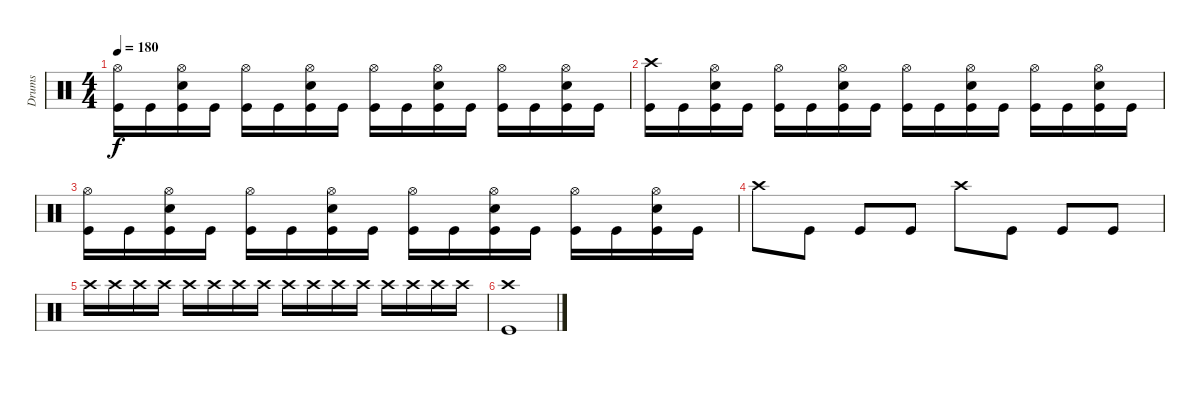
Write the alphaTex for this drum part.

\track ("Drums" "Drums") {instrument percussion}
\staff {score}
\articulation defaults
\ts (4 4)
\tempo 180
\clef neutral
\ks c
("Hi-Hat (open)" "Kick (hit)").16{dy f} "Kick (hit)".16 ("Hi-Hat (open)" "Electric Snare (hit)" "Kick (hit)").16 "Kick (hit)".16 ("Hi-Hat (open)" "Kick (hit)").16 "Kick (hit)".16 ("Hi-Hat (open)" "Electric Snare (hit)" "Kick (hit)").16 "Kick (hit)".16 ("Hi-Hat (open)" "Kick (hit)").16 "Kick (hit)".16 ("Hi-Hat (open)" "Electric Snare (hit)" "Kick (hit)").16 "Kick (hit)".16 ("Hi-Hat (open)" "Kick (hit)").16 "Kick (hit)".16 ("Hi-Hat (open)" "Electric Snare (hit)" "Kick (hit)").16 "Kick (hit)".16 |
("Crash high (hit)" "Kick (hit)").16 "Kick (hit)".16 ("Hi-Hat (open)" "Electric Snare (hit)" "Kick (hit)").16 "Kick (hit)".16 ("Hi-Hat (open)" "Kick (hit)").16 "Kick (hit)".16 ("Hi-Hat (open)" "Electric Snare (hit)" "Kick (hit)").16 "Kick (hit)".16 ("Hi-Hat (open)" "Kick (hit)").16 "Kick (hit)".16 ("Hi-Hat (open)" "Electric Snare (hit)" "Kick (hit)").16 "Kick (hit)".16 ("Hi-Hat (open)" "Kick (hit)").16 "Kick (hit)".16 ("Hi-Hat (open)" "Electric Snare (hit)" "Kick (hit)").16 "Kick (hit)".16 |
("Hi-Hat (open)" "Kick (hit)").16 "Kick (hit)".16 ("Hi-Hat (open)" "Electric Snare (hit)" "Kick (hit)").16 "Kick (hit)".16 ("Hi-Hat (open)" "Kick (hit)").16 "Kick (hit)".16 ("Hi-Hat (open)" "Electric Snare (hit)" "Kick (hit)").16 "Kick (hit)".16 ("Hi-Hat (open)" "Kick (hit)").16 "Kick (hit)".16 ("Hi-Hat (open)" "Electric Snare (hit)" "Kick (hit)").16 "Kick (hit)".16 ("Hi-Hat (open)" "Kick (hit)").16 "Kick (hit)".16 ("Hi-Hat (open)" "Electric Snare (hit)" "Kick (hit)").16 "Kick (hit)".16 |
"Crash high (hit)".8 "Kick (hit)".8 "Kick (hit)".8 "Kick (hit)".8 "Crash high (hit)".8 "Kick (hit)".8 "Kick (hit)".8 "Kick (hit)".8 |
"Crash high (hit)".16 "Crash high (hit)".16 "Crash high (hit)".16 "Crash high (hit)".16 "Crash high (hit)".16 "Crash high (hit)".16 "Crash high (hit)".16 "Crash high (hit)".16 "Crash high (hit)".16 "Crash high (hit)".16 "Crash high (hit)".16 "Crash high (hit)".16 "Crash high (hit)".16 "Crash high (hit)".16 "Crash high (hit)".16 "Crash high (hit)".16 |
("Crash high (hit)" "Kick (hit)").1
